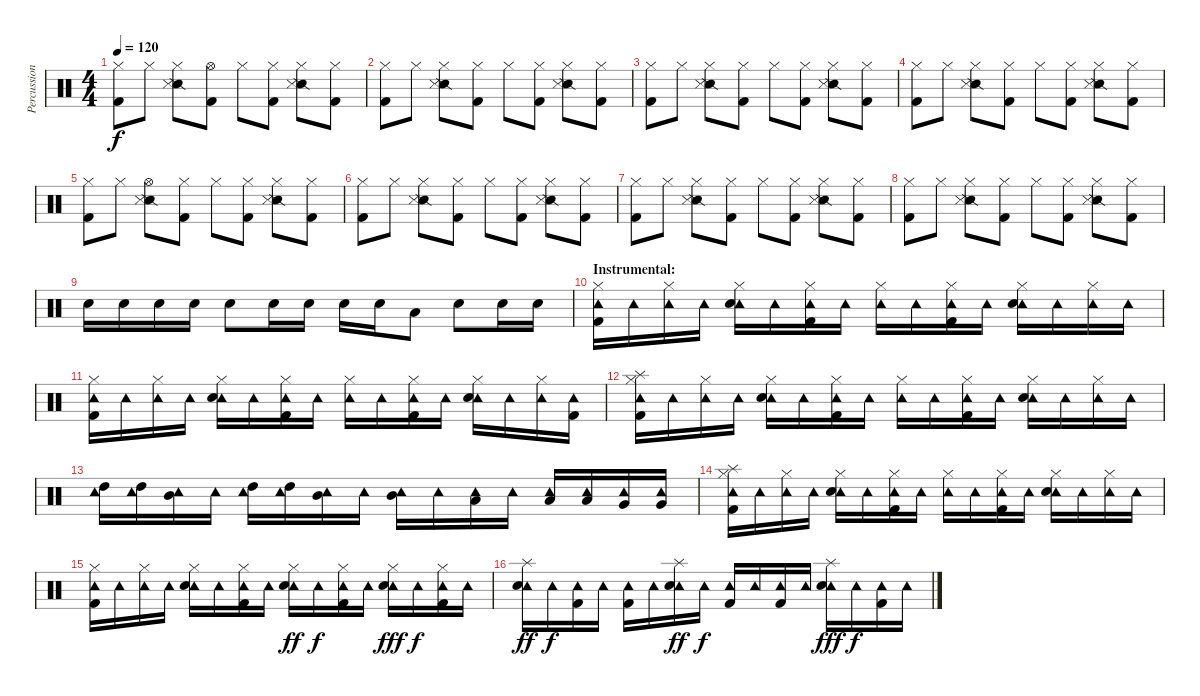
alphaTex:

\track ("Percussion" "Percussion") {instrument percussion}
\staff {score}
\articulation defaults
\ts (4 4)
\tempo 120
\clef neutral
\ks c
("Hi-Hat (closed)" "Kick (hit) 2").8{dy f} "Hi-Hat (closed)".8 ("Hi-Hat (closed)" "Snare (side stick) 2" "Snare (side stick) 3").8 ("Hi-Hat (open)" "Kick (hit) 2").8 "Hi-Hat (closed)".8 ("Hi-Hat (closed)" "Kick (hit) 2").8 ("Hi-Hat (closed)" "Snare (side stick) 2" "Snare (side stick) 3").8 ("Hi-Hat (closed)" "Kick (hit) 2").8 |
("Hi-Hat (closed)" "Kick (hit) 2").8 "Hi-Hat (closed)".8 ("Hi-Hat (closed)" "Snare (side stick) 2" "Snare (side stick) 3").8 ("Hi-Hat (closed)" "Kick (hit) 2").8 "Hi-Hat (closed)".8 ("Hi-Hat (closed)" "Kick (hit) 2").8 ("Hi-Hat (closed)" "Snare (side stick) 2" "Snare (side stick) 3").8 ("Hi-Hat (closed)" "Kick (hit) 2").8 |
("Hi-Hat (closed)" "Kick (hit) 2").8 "Hi-Hat (closed)".8 ("Hi-Hat (closed)" "Snare (side stick) 2" "Snare (side stick) 3").8 ("Hi-Hat (closed)" "Kick (hit) 2").8 "Hi-Hat (closed)".8 ("Hi-Hat (closed)" "Kick (hit) 2").8 ("Hi-Hat (closed)" "Snare (side stick) 2" "Snare (side stick) 3").8 ("Hi-Hat (closed)" "Kick (hit) 2").8 |
("Hi-Hat (closed)" "Kick (hit) 2").8 "Hi-Hat (closed)".8 ("Hi-Hat (closed)" "Snare (side stick) 2" "Snare (side stick) 3").8 ("Hi-Hat (closed)" "Kick (hit) 2").8 "Hi-Hat (closed)".8 ("Hi-Hat (closed)" "Kick (hit) 2").8 ("Hi-Hat (closed)" "Snare (side stick) 2" "Snare (side stick) 3").8 ("Hi-Hat (closed)" "Kick (hit) 2").8 |
("Hi-Hat (closed)" "Kick (hit) 2").8 "Hi-Hat (closed)".8 ("Hi-Hat (open)" "Snare (side stick) 2" "Snare (side stick) 3").8 ("Hi-Hat (closed)" "Kick (hit) 2").8 "Hi-Hat (closed)".8 ("Hi-Hat (closed)" "Kick (hit) 2").8 ("Hi-Hat (closed)" "Snare (side stick) 2" "Snare (side stick) 3").8 ("Hi-Hat (closed)" "Kick (hit) 2").8 |
("Hi-Hat (closed)" "Kick (hit) 2").8 "Hi-Hat (closed)".8 ("Hi-Hat (closed)" "Snare (side stick) 2" "Snare (side stick) 3").8 ("Hi-Hat (closed)" "Kick (hit) 2").8 "Hi-Hat (closed)".8 ("Hi-Hat (closed)" "Kick (hit) 2").8 ("Hi-Hat (closed)" "Snare (side stick) 2" "Snare (side stick) 3").8 ("Hi-Hat (closed)" "Kick (hit) 2").8 |
("Hi-Hat (closed)" "Kick (hit) 2").8 "Hi-Hat (closed)".8 ("Hi-Hat (closed)" "Snare (side stick) 2" "Snare (side stick) 3").8 ("Hi-Hat (closed)" "Kick (hit) 2").8 "Hi-Hat (closed)".8 ("Hi-Hat (closed)" "Kick (hit) 2").8 ("Hi-Hat (closed)" "Snare (side stick) 2" "Snare (side stick) 3").8 ("Hi-Hat (closed)" "Kick (hit) 2").8 |
("Hi-Hat (closed)" "Kick (hit) 2").8 "Hi-Hat (closed)".8 ("Hi-Hat (closed)" "Snare (side stick) 2" "Snare (side stick) 3").8 ("Hi-Hat (closed)" "Kick (hit) 2").8 "Hi-Hat (closed)".8 ("Hi-Hat (closed)" "Kick (hit) 2").8 ("Hi-Hat (closed)" "Snare (side stick) 2" "Snare (side stick) 3").8 ("Hi-Hat (closed)" "Kick (hit) 2").8 |
"Electric Snare (hit)".16 "Electric Snare (hit)".16 "Electric Snare (hit)".16 "Electric Snare (hit)".16 "Electric Snare (hit)".8 "Electric Snare (hit)".16 "Electric Snare (hit)".16 "Electric Snare (hit)".16 "Electric Snare (hit)".16 "Low Tom (hit)".8 "Electric Snare (hit)".8 "Electric Snare (hit)".16 "Electric Snare (hit)".16 |
\section ("" "Instrumental:")
("Hi-Hat (closed)" "Tambourine (hit)" "Kick (hit) 2").16 "Tambourine (hit)".16 ("Hi-Hat (closed)" "Tambourine (hit)").16 "Tambourine (hit)".16 ("Hi-Hat (closed)" "Tambourine (hit)" "Electric Snare (hit)").16 "Tambourine (hit)".16 ("Hi-Hat (closed)" "Tambourine (hit)" "Kick (hit) 2").16 "Tambourine (hit)".16 ("Hi-Hat (closed)" "Tambourine (hit)").16 "Tambourine (hit)".16 ("Hi-Hat (closed)" "Tambourine (hit)" "Kick (hit) 2").16 "Tambourine (hit)".16 ("Hi-Hat (closed)" "Tambourine (hit)" "Electric Snare (hit)").16 "Tambourine (hit)".16 ("Hi-Hat (closed)" "Tambourine (hit)").16 "Tambourine (hit)".16 |
("Hi-Hat (closed)" "Tambourine (hit)" "Kick (hit) 2").16 "Tambourine (hit)".16 ("Hi-Hat (closed)" "Tambourine (hit)").16 "Tambourine (hit)".16 ("Hi-Hat (closed)" "Tambourine (hit)" "Electric Snare (hit)").16 "Tambourine (hit)".16 ("Hi-Hat (closed)" "Tambourine (hit)" "Kick (hit) 2").16 "Tambourine (hit)".16 ("Hi-Hat (closed)" "Tambourine (hit)").16 "Tambourine (hit)".16 ("Hi-Hat (closed)" "Tambourine (hit)" "Kick (hit) 2").16 "Tambourine (hit)".16 ("Hi-Hat (closed)" "Tambourine (hit)" "Electric Snare (hit)").16 "Tambourine (hit)".16 ("Hi-Hat (closed)" "Tambourine (hit)").16 ("Tambourine (hit)" "Kick (hit) 2").16 |
("Hi-Hat (closed)" "Tambourine (hit)" "Splash (hit)" "Kick (hit) 2").16 "Tambourine (hit)".16 ("Hi-Hat (closed)" "Tambourine (hit)").16 "Tambourine (hit)".16 ("Hi-Hat (closed)" "Tambourine (hit)" "Electric Snare (hit)").16 "Tambourine (hit)".16 ("Hi-Hat (closed)" "Tambourine (hit)" "Kick (hit) 2").16 "Tambourine (hit)".16 ("Hi-Hat (closed)" "Tambourine (hit)").16 "Tambourine (hit)".16 ("Hi-Hat (closed)" "Tambourine (hit)" "Kick (hit) 2").16 "Tambourine (hit)".16 ("Hi-Hat (closed)" "Tambourine (hit)" "Electric Snare (hit)").16 "Tambourine (hit)".16 ("Hi-Hat (closed)" "Tambourine (hit)").16 "Tambourine (hit)".16 |
("Tambourine (hit)" "High Tom (hit)").16 ("Tambourine (hit)" "High Tom (hit)").16 ("Tambourine (hit)" "Mid Tom (hit)").16 "Tambourine (hit)".16 ("Tambourine (hit)" "High Tom (hit)").16 ("Tambourine (hit)" "High Tom (hit)").16 ("Tambourine (hit)" "Mid Tom (hit)").16 "Tambourine (hit)".16 ("Tambourine (hit)" "Mid Tom (hit)").16 "Tambourine (hit)".16 ("Tambourine (hit)" "Low Tom (hit)").16 "Tambourine (hit)".16 ("Tambourine (hit)" "Low Tom (hit)").16 ("Tambourine (hit)" "Low Tom (hit)").16 ("Tambourine (hit)" "Very Low Tom (hit)").16 ("Tambourine (hit)" "Very Low Tom (hit)").16 |
("Hi-Hat (closed)" "Tambourine (hit)" "Splash (hit)" "Kick (hit) 2").16 "Tambourine (hit)".16 ("Hi-Hat (closed)" "Tambourine (hit)").16 "Tambourine (hit)".16 ("Hi-Hat (closed)" "Tambourine (hit)" "Electric Snare (hit)").16 "Tambourine (hit)".16 ("Hi-Hat (closed)" "Tambourine (hit)" "Kick (hit) 2").16 "Tambourine (hit)".16 ("Hi-Hat (closed)" "Tambourine (hit)").16 "Tambourine (hit)".16 ("Hi-Hat (closed)" "Tambourine (hit)" "Kick (hit) 2").16 "Tambourine (hit)".16 ("Hi-Hat (closed)" "Tambourine (hit)" "Electric Snare (hit)").16 "Tambourine (hit)".16 ("Hi-Hat (closed)" "Tambourine (hit)").16 "Tambourine (hit)".16 |
("Hi-Hat (closed)" "Tambourine (hit)" "Kick (hit) 2").16 "Tambourine (hit)".16 ("Hi-Hat (closed)" "Tambourine (hit)").16 "Tambourine (hit)".16 ("Hi-Hat (closed)" "Tambourine (hit)" "Electric Snare (hit)").16 "Tambourine (hit)".16 ("Hi-Hat (closed)" "Tambourine (hit)" "Kick (hit) 2").16 "Tambourine (hit)".16 ("Hi-Hat (closed)" "Tambourine (hit)" "Electric Snare (hit)").16{dy ff} "Tambourine (hit)".16{dy f} ("Hi-Hat (closed)" "Tambourine (hit)" "Kick (hit) 2").16 "Tambourine (hit)".16 ("Hi-Hat (closed)" "Tambourine (hit)" "Electric Snare (hit)").16{dy fff} "Tambourine (hit)".16{dy f} ("Hi-Hat (closed)" "Tambourine (hit)" "Kick (hit) 2").16 "Tambourine (hit)".16 |
("Splash (hit)" "Tambourine (hit)" "Electric Snare (hit)").16{dy ff} "Tambourine (hit)".16{dy f} ("Tambourine (hit)" "Kick (hit) 2").16 "Tambourine (hit)".16 ("Tambourine (hit)" "Kick (hit) 2").16 "Tambourine (hit)".16 ("Splash (hit)" "Tambourine (hit)" "Electric Snare (hit)").16{dy ff} "Tambourine (hit)".16{dy f} ("Tambourine (hit)" "Kick (hit) 2").16 "Tambourine (hit)".16 ("Tambourine (hit)" "Kick (hit) 2").16 "Tambourine (hit)".16 ("Splash (hit)" "Tambourine (hit)" "Electric Snare (hit)").16{dy fff} "Tambourine (hit)".16{dy f} ("Tambourine (hit)" "Kick (hit) 2").16 "Tambourine (hit)".16
